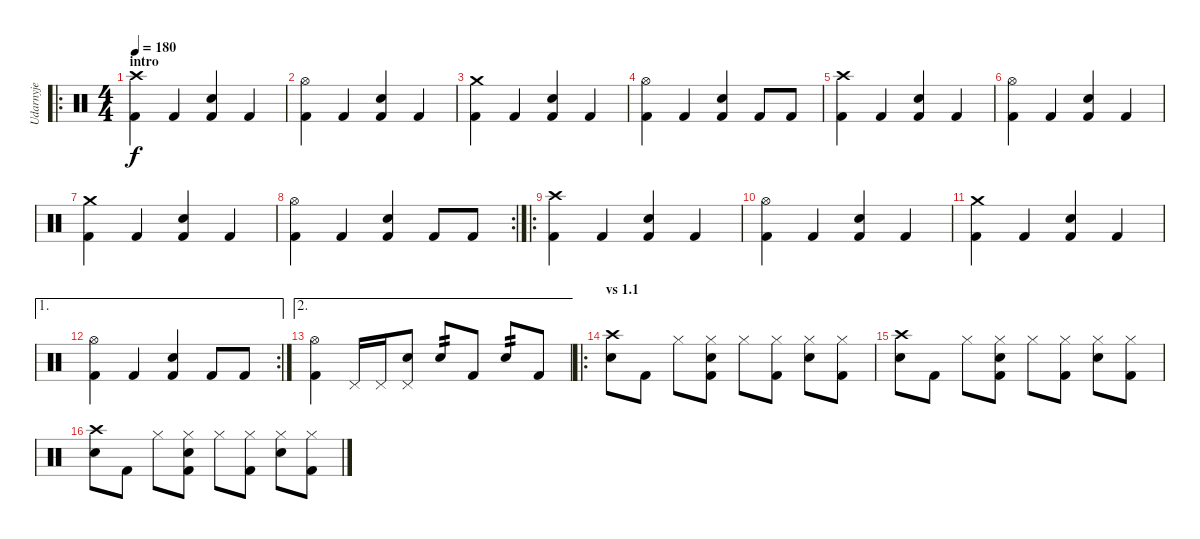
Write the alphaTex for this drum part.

\track ("Udarnyje" "Udarnyje") {instrument percussion}
\staff {score}
\articulation defaults
\ro
\ts (4 4)
\section ("" "intro")
\tempo 180
\clef neutral
\ks c
("Crash high (hit)" "Kick (hit) 2").4{dy f} "Kick (hit) 2".4 ("Electric Snare (hit)" "Kick (hit) 2").4 "Kick (hit) 2".4 |
("Hi-Hat (open)" "Kick (hit) 2").4 "Kick (hit) 2".4 ("Electric Snare (hit)" "Kick (hit) 2").4 "Kick (hit) 2".4 |
("Crash medium (hit)" "Kick (hit) 2").4 "Kick (hit) 2".4 ("Electric Snare (hit)" "Kick (hit) 2").4 "Kick (hit) 2".4 |
("Hi-Hat (open)" "Kick (hit) 2").4 "Kick (hit) 2".4 ("Electric Snare (hit)" "Kick (hit) 2").4 "Kick (hit) 2".8 "Kick (hit) 2".8 |
("Crash high (hit)" "Kick (hit) 2").4 "Kick (hit) 2".4 ("Electric Snare (hit)" "Kick (hit) 2").4 "Kick (hit) 2".4 |
("Hi-Hat (open)" "Kick (hit) 2").4 "Kick (hit) 2".4 ("Electric Snare (hit)" "Kick (hit) 2").4 "Kick (hit) 2".4 |
("Crash medium (hit)" "Kick (hit) 2").4 "Kick (hit) 2".4 ("Electric Snare (hit)" "Kick (hit) 2").4 "Kick (hit) 2".4 |
\rc 2
("Hi-Hat (open)" "Kick (hit) 2").4 "Kick (hit) 2".4 ("Electric Snare (hit)" "Kick (hit) 2").4 "Kick (hit) 2".8 "Kick (hit) 2".8 |
\ro
("Crash high (hit)" "Kick (hit) 2").4 "Kick (hit) 2".4 ("Electric Snare (hit)" "Kick (hit) 2").4 "Kick (hit) 2".4 |
("Hi-Hat (open)" "Kick (hit) 2").4 "Kick (hit) 2".4 ("Electric Snare (hit)" "Kick (hit) 2").4 "Kick (hit) 2".4 |
("Crash medium (hit)" "Kick (hit) 2").4 "Kick (hit) 2".4 ("Electric Snare (hit)" "Kick (hit) 2").4 "Kick (hit) 2".4 |
\ae 1
\rc 2
("Hi-Hat (open)" "Kick (hit) 2").4 "Kick (hit) 2".4 ("Electric Snare (hit)" "Kick (hit) 2").4 "Kick (hit) 2".8 "Kick (hit) 2".8 |
\ae 2
("Hi-Hat (open)" "Kick (hit) 2").4 "Pedal Hi-Hat (hit)".16 "Pedal Hi-Hat (hit)".16 ("Pedal Hi-Hat (hit)" "Electric Snare (hit)").8 "Electric Snare (hit)".8{tp 2} "Kick (hit) 2".8 "Electric Snare (hit)".8{tp 2} "Kick (hit) 2".8 |
\ro
\section ("" "vs 1.1")
("Crash high (hit)" "Electric Snare (hit)").8 "Kick (hit) 2".8 "Hi-Hat (closed)".8 ("Hi-Hat (closed)" "Electric Snare (hit)" "Kick (hit) 2").8 "Hi-Hat (closed)".8 ("Hi-Hat (closed)" "Kick (hit) 2").8 ("Hi-Hat (closed)" "Electric Snare (hit)").8 ("Hi-Hat (closed)" "Kick (hit) 2").8 |
("Crash high (hit)" "Electric Snare (hit)").8 "Kick (hit) 2".8 "Hi-Hat (closed)".8 ("Hi-Hat (closed)" "Electric Snare (hit)" "Kick (hit) 2").8 "Hi-Hat (closed)".8 ("Hi-Hat (closed)" "Kick (hit) 2").8 ("Hi-Hat (closed)" "Electric Snare (hit)").8 ("Hi-Hat (closed)" "Kick (hit) 2").8 |
("Crash high (hit)" "Electric Snare (hit)").8 "Kick (hit) 2".8 "Hi-Hat (closed)".8 ("Hi-Hat (closed)" "Electric Snare (hit)" "Kick (hit) 2").8 "Hi-Hat (closed)".8 ("Hi-Hat (closed)" "Kick (hit) 2").8 ("Hi-Hat (closed)" "Electric Snare (hit)").8 ("Hi-Hat (closed)" "Kick (hit) 2").8
